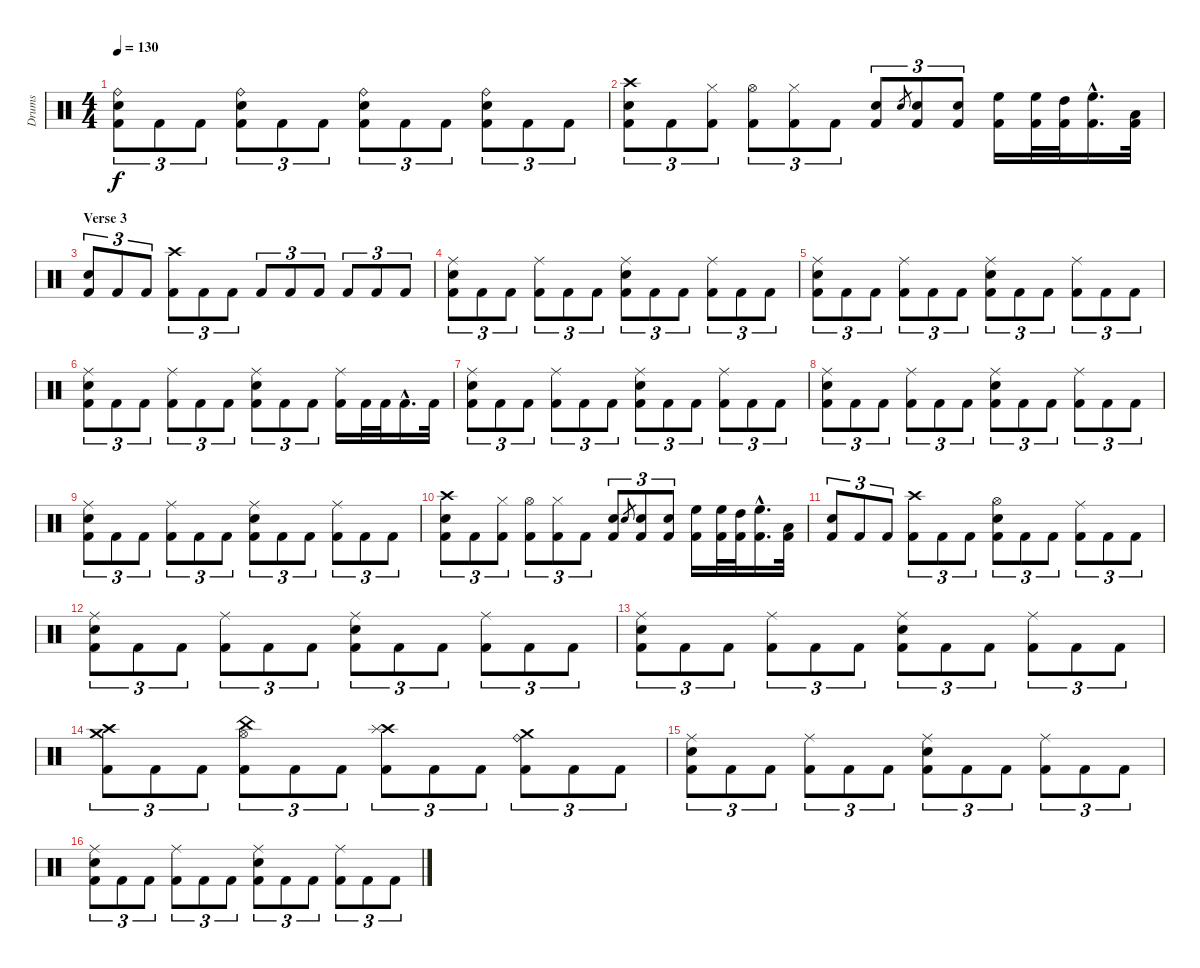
\track ("Drums" "Drums") {instrument percussion}
\staff {score}
\articulation defaults
\ts (4 4)
\tempo 130
\clef neutral
\ks c
("Ride (bell)" "Snare (hit) 2" "Kick (hit) 2").8{tu (3 2) dy f} "Kick (hit) 2".8{tu (3 2)} "Kick (hit) 2".8{tu (3 2)} ("Ride (bell)" "Snare (hit) 2" "Kick (hit) 2").8{tu (3 2)} "Kick (hit) 2".8{tu (3 2)} "Kick (hit) 2".8{tu (3 2)} ("Ride (bell)" "Snare (hit) 2" "Kick (hit) 2").8{tu (3 2)} "Kick (hit) 2".8{tu (3 2)} "Kick (hit) 2".8{tu (3 2)} ("Ride (bell)" "Snare (hit) 2" "Kick (hit) 2").8{tu (3 2)} "Kick (hit) 2".8{tu (3 2)} "Kick (hit) 2".8{tu (3 2)} |
("Crash high (hit)" "Snare (hit) 2" "Kick (hit) 2").8{tu (3 2)} "Kick (hit) 2".8{tu (3 2)} ("Hi-Hat (closed)" "Kick (hit) 2").8{tu (3 2)} ("Hi-Hat (open)" "Kick (hit) 2").8{tu (3 2)} ("Hi-Hat (closed)" "Kick (hit) 2").8{tu (3 2)} "Kick (hit) 2".8{tu (3 2)} ("Snare (hit) 2" "Kick (hit) 2").8{tu (3 2)} "Snare (hit) 2".8{gr} ("Snare (hit) 2" "Kick (hit) 2").8{tu (3 2)} ("Snare (hit) 2" "Kick (hit) 2").8{tu (3 2)} ("High Floor Tom (hit)" "Kick (hit) 2").16 ("High Floor Tom (hit)" "Kick (hit) 2").32 ("High Tom (hit)" "Kick (hit) 2").32 ("High Floor Tom (hit)"{hac} "Kick (hit) 2"{hac}).16{d} ("Low Tom (hit)" "Kick (hit) 2").32 |
\section ("" "Verse 3")
("Snare (hit) 2" "Kick (hit) 2").8{tu (3 2)} "Kick (hit) 2".8{tu (3 2)} "Kick (hit) 2".8{tu (3 2)} ("Crash high (hit)" "Kick (hit) 2").8{tu (3 2)} "Kick (hit) 2".8{tu (3 2)} "Kick (hit) 2".8{tu (3 2)} "Kick (hit) 2".8{tu (3 2)} "Kick (hit) 2".8{tu (3 2)} "Kick (hit) 2".8{tu (3 2)} "Kick (hit) 2".8{tu (3 2)} "Kick (hit) 2".8{tu (3 2)} "Kick (hit) 2".8{tu (3 2)} |
("Ride (middle)" "Snare (hit) 2" "Kick (hit) 2").8{tu (3 2)} "Kick (hit) 2".8{tu (3 2)} "Kick (hit) 2".8{tu (3 2)} ("Ride (middle)" "Kick (hit) 2").8{tu (3 2)} "Kick (hit) 2".8{tu (3 2)} "Kick (hit) 2".8{tu (3 2)} ("Ride (middle)" "Snare (hit) 2" "Kick (hit) 2").8{tu (3 2)} "Kick (hit) 2".8{tu (3 2)} "Kick (hit) 2".8{tu (3 2)} ("Ride (middle)" "Kick (hit) 2").8{tu (3 2)} "Kick (hit) 2".8{tu (3 2)} "Kick (hit) 2".8{tu (3 2)} |
("Ride (middle)" "Snare (hit) 2" "Kick (hit) 2").8{tu (3 2)} "Kick (hit) 2".8{tu (3 2)} "Kick (hit) 2".8{tu (3 2)} ("Ride (middle)" "Kick (hit) 2").8{tu (3 2)} "Kick (hit) 2".8{tu (3 2)} "Kick (hit) 2".8{tu (3 2)} ("Ride (middle)" "Snare (hit) 2" "Kick (hit) 2").8{tu (3 2)} "Kick (hit) 2".8{tu (3 2)} "Kick (hit) 2".8{tu (3 2)} ("Ride (middle)" "Kick (hit) 2").8{tu (3 2)} "Kick (hit) 2".8{tu (3 2)} "Kick (hit) 2".8{tu (3 2)} |
("Ride (middle)" "Snare (hit) 2" "Kick (hit) 2").8{tu (3 2)} "Kick (hit) 2".8{tu (3 2)} "Kick (hit) 2".8{tu (3 2)} ("Ride (middle)" "Kick (hit) 2").8{tu (3 2)} "Kick (hit) 2".8{tu (3 2)} "Kick (hit) 2".8{tu (3 2)} ("Ride (middle)" "Snare (hit) 2" "Kick (hit) 2").8{tu (3 2)} "Kick (hit) 2".8{tu (3 2)} "Kick (hit) 2".8{tu (3 2)} ("Ride (middle)" "Kick (hit) 2").16 "Kick (hit) 2".32 "Kick (hit) 2".32 "Kick (hit) 2"{hac}.16{d} "Kick (hit) 2".32 |
("Ride (middle)" "Snare (hit) 2" "Kick (hit) 2").8{tu (3 2)} "Kick (hit) 2".8{tu (3 2)} "Kick (hit) 2".8{tu (3 2)} ("Ride (middle)" "Kick (hit) 2").8{tu (3 2)} "Kick (hit) 2".8{tu (3 2)} "Kick (hit) 2".8{tu (3 2)} ("Ride (middle)" "Snare (hit) 2" "Kick (hit) 2").8{tu (3 2)} "Kick (hit) 2".8{tu (3 2)} "Kick (hit) 2".8{tu (3 2)} ("Ride (middle)" "Kick (hit) 2").8{tu (3 2)} "Kick (hit) 2".8{tu (3 2)} "Kick (hit) 2".8{tu (3 2)} |
("Ride (middle)" "Snare (hit) 2" "Kick (hit) 2").8{tu (3 2)} "Kick (hit) 2".8{tu (3 2)} "Kick (hit) 2".8{tu (3 2)} ("Ride (middle)" "Kick (hit) 2").8{tu (3 2)} "Kick (hit) 2".8{tu (3 2)} "Kick (hit) 2".8{tu (3 2)} ("Ride (middle)" "Snare (hit) 2" "Kick (hit) 2").8{tu (3 2)} "Kick (hit) 2".8{tu (3 2)} "Kick (hit) 2".8{tu (3 2)} ("Ride (middle)" "Kick (hit) 2").8{tu (3 2)} "Kick (hit) 2".8{tu (3 2)} "Kick (hit) 2".8{tu (3 2)} |
("Ride (middle)" "Snare (hit) 2" "Kick (hit) 2").8{tu (3 2)} "Kick (hit) 2".8{tu (3 2)} "Kick (hit) 2".8{tu (3 2)} ("Ride (middle)" "Kick (hit) 2").8{tu (3 2)} "Kick (hit) 2".8{tu (3 2)} "Kick (hit) 2".8{tu (3 2)} ("Ride (middle)" "Snare (hit) 2" "Kick (hit) 2").8{tu (3 2)} "Kick (hit) 2".8{tu (3 2)} "Kick (hit) 2".8{tu (3 2)} ("Ride (middle)" "Kick (hit) 2").8{tu (3 2)} "Kick (hit) 2".8{tu (3 2)} "Kick (hit) 2".8{tu (3 2)} |
("Crash high (hit)" "Snare (hit) 2" "Kick (hit) 2").8{tu (3 2)} "Kick (hit) 2".8{tu (3 2)} ("Hi-Hat (closed)" "Kick (hit) 2").8{tu (3 2)} ("Hi-Hat (open)" "Kick (hit) 2").8{tu (3 2)} ("Hi-Hat (closed)" "Kick (hit) 2").8{tu (3 2)} "Kick (hit) 2".8{tu (3 2)} ("Snare (hit) 2" "Kick (hit) 2").8{tu (3 2)} "Snare (hit) 2".8{gr} ("Snare (hit) 2" "Kick (hit) 2").8{tu (3 2)} ("Snare (hit) 2" "Kick (hit) 2").8{tu (3 2)} ("High Floor Tom (hit)" "Kick (hit) 2").16 ("High Floor Tom (hit)" "Kick (hit) 2").32 ("High Tom (hit)" "Kick (hit) 2").32 ("High Floor Tom (hit)"{hac} "Kick (hit) 2"{hac}).16{d} ("Low Tom (hit)" "Kick (hit) 2").32 |
("Snare (hit) 2" "Kick (hit) 2").8{tu (3 2)} "Kick (hit) 2".8{tu (3 2)} "Kick (hit) 2".8{tu (3 2)} ("Crash high (hit)" "Kick (hit) 2").8{tu (3 2)} "Kick (hit) 2".8{tu (3 2)} "Kick (hit) 2".8{tu (3 2)} ("Hi-Hat (open)" "Snare (hit) 2" "Kick (hit) 2").8{tu (3 2)} "Kick (hit) 2".8{tu (3 2)} "Kick (hit) 2".8{tu (3 2)} ("Ride (middle)" "Kick (hit) 2").8{tu (3 2)} "Kick (hit) 2".8{tu (3 2)} "Kick (hit) 2".8{tu (3 2)} |
("Ride (middle)" "Snare (hit) 2" "Kick (hit) 2").8{tu (3 2)} "Kick (hit) 2".8{tu (3 2)} "Kick (hit) 2".8{tu (3 2)} ("Ride (middle)" "Kick (hit) 2").8{tu (3 2)} "Kick (hit) 2".8{tu (3 2)} "Kick (hit) 2".8{tu (3 2)} ("Ride (middle)" "Snare (hit) 2" "Kick (hit) 2").8{tu (3 2)} "Kick (hit) 2".8{tu (3 2)} "Kick (hit) 2".8{tu (3 2)} ("Ride (middle)" "Kick (hit) 2").8{tu (3 2)} "Kick (hit) 2".8{tu (3 2)} "Kick (hit) 2".8{tu (3 2)} |
("Ride (middle)" "Snare (hit) 2" "Kick (hit) 2").8{tu (3 2)} "Kick (hit) 2".8{tu (3 2)} "Kick (hit) 2".8{tu (3 2)} ("Ride (middle)" "Kick (hit) 2").8{tu (3 2)} "Kick (hit) 2".8{tu (3 2)} "Kick (hit) 2".8{tu (3 2)} ("Ride (middle)" "Snare (hit) 2" "Kick (hit) 2").8{tu (3 2)} "Kick (hit) 2".8{tu (3 2)} "Kick (hit) 2".8{tu (3 2)} ("Ride (middle)" "Kick (hit) 2").8{tu (3 2)} "Kick (hit) 2".8{tu (3 2)} "Kick (hit) 2".8{tu (3 2)} |
("Crash high (hit)" "Crash medium (hit)" "Kick (hit) 2").8{tu (3 2)} "Kick (hit) 2".8{tu (3 2)} "Kick (hit) 2".8{tu (3 2)} ("Hi-Hat (open)" "China (hit)" "Kick (hit) 2").8{tu (3 2)} "Kick (hit) 2".8{tu (3 2)} "Kick (hit) 2".8{tu (3 2)} ("Crash high (hit)" "Splash (hit)" "Kick (hit) 2").8{tu (3 2)} "Kick (hit) 2".8{tu (3 2)} "Kick (hit) 2".8{tu (3 2)} ("Crash medium (hit)" "Ride (bell)" "Kick (hit) 2").8{tu (3 2)} "Kick (hit) 2".8{tu (3 2)} "Kick (hit) 2".8{tu (3 2)} |
("Ride (middle)" "Snare (hit) 2" "Kick (hit) 2").8{tu (3 2)} "Kick (hit) 2".8{tu (3 2)} "Kick (hit) 2".8{tu (3 2)} ("Ride (middle)" "Kick (hit) 2").8{tu (3 2)} "Kick (hit) 2".8{tu (3 2)} "Kick (hit) 2".8{tu (3 2)} ("Ride (middle)" "Snare (hit) 2" "Kick (hit) 2").8{tu (3 2)} "Kick (hit) 2".8{tu (3 2)} "Kick (hit) 2".8{tu (3 2)} ("Ride (middle)" "Kick (hit) 2").8{tu (3 2)} "Kick (hit) 2".8{tu (3 2)} "Kick (hit) 2".8{tu (3 2)} |
("Ride (middle)" "Snare (hit) 2" "Kick (hit) 2").8{tu (3 2)} "Kick (hit) 2".8{tu (3 2)} "Kick (hit) 2".8{tu (3 2)} ("Ride (middle)" "Kick (hit) 2").8{tu (3 2)} "Kick (hit) 2".8{tu (3 2)} "Kick (hit) 2".8{tu (3 2)} ("Ride (middle)" "Snare (hit) 2" "Kick (hit) 2").8{tu (3 2)} "Kick (hit) 2".8{tu (3 2)} "Kick (hit) 2".8{tu (3 2)} ("Ride (middle)" "Kick (hit) 2").8{tu (3 2)} "Kick (hit) 2".8{tu (3 2)} "Kick (hit) 2".8{tu (3 2)}
